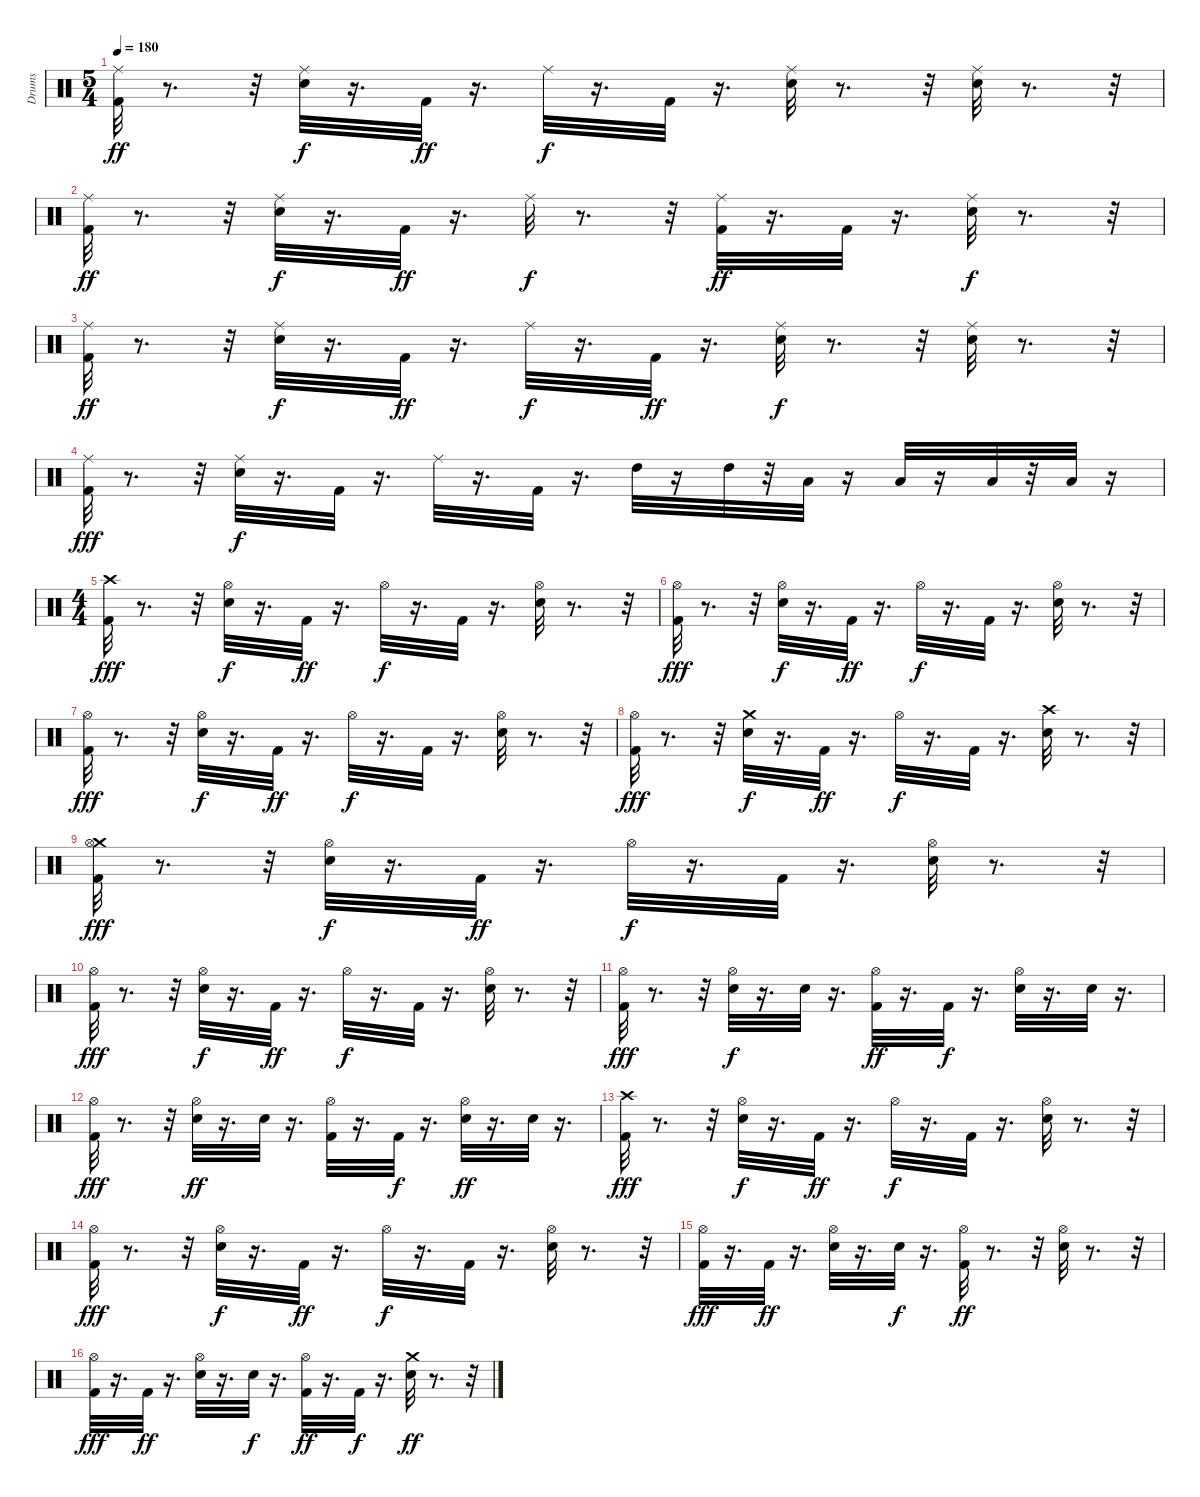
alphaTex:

\track ("Drums" "Drums") {instrument percussion}
\staff {score}
\articulation defaults
\ts (5 4)
\tempo 180
\clef neutral
\ks c
("Ride (middle)" "Kick (hit) 2").32{dy ff} r.8{d} r.32 ("Ride (middle)" "Snare (hit) 2").32{dy f} r.16{d} "Kick (hit) 2".32{dy ff} r.16{d} "Ride (middle)".32{dy f} r.16{d} "Kick (hit) 2".32 r.16{d} ("Ride (middle)" "Snare (hit) 2").32 r.8{d} r.32 ("Ride (middle)" "Snare (hit) 2").32 r.8{d} r.32 |
("Ride (middle)" "Kick (hit) 2").32{dy ff} r.8{d} r.32 ("Ride (middle)" "Snare (hit) 2").32{dy f} r.16{d} "Kick (hit) 2".32{dy ff} r.16{d} "Ride (middle)".32{dy f} r.8{d} r.32 ("Kick (hit) 2" "Ride (middle)").32{dy ff} r.16{d} "Kick (hit) 2".32 r.16{d} ("Ride (middle)" "Snare (hit) 2").32{dy f} r.8{d} r.32 |
("Ride (middle)" "Kick (hit) 2").32{dy ff} r.8{d} r.32 ("Ride (middle)" "Snare (hit) 2").32{dy f} r.16{d} "Kick (hit) 2".32{dy ff} r.16{d} "Ride (middle)".32{dy f} r.16{d} "Kick (hit) 2".32{dy ff} r.16{d} ("Ride (middle)" "Snare (hit) 2").32{dy f} r.8{d} r.32 ("Ride (middle)" "Snare (hit) 2").32 r.8{d} r.32 |
("Ride (middle)" "Kick (hit) 2").32{dy fff} r.8{d} r.32 ("Ride (middle)" "Snare (hit) 2").32{dy f} r.16{d} "Kick (hit) 2".32 r.16{d} "Ride (middle)".32 r.16{d} "Kick (hit) 2".32 r.16{d} "High Tom (hit)".32 r.16 "High Tom (hit)".32 r.32 "Low Tom (hit)".32 r.16 "Low Tom (hit)".32 r.16 "Low Floor Tom (hit)".32 r.32 "Low Floor Tom (hit)".32 r.16 |
\ts (4 4)
("Kick (hit) 2" "Crash high (hit)").32{dy fff} r.8{d} r.32 ("Hi-Hat (open)" "Snare (hit) 2").32{dy f} r.16{d} "Kick (hit) 2".32{dy ff} r.16{d} "Hi-Hat (open)".32{dy f} r.16{d} "Kick (hit) 2".32 r.16{d} ("Hi-Hat (open)" "Snare (hit) 2").32 r.8{d} r.32 |
("Hi-Hat (open)" "Kick (hit) 2").32{dy fff} r.8{d} r.32 ("Hi-Hat (open)" "Snare (hit) 2").32{dy f} r.16{d} "Kick (hit) 2".32{dy ff} r.16{d} "Hi-Hat (open)".32{dy f} r.16{d} "Kick (hit) 2".32 r.16{d} ("Hi-Hat (open)" "Snare (hit) 2").32 r.8{d} r.32 |
("Hi-Hat (open)" "Kick (hit) 2").32{dy fff} r.8{d} r.32 ("Hi-Hat (open)" "Snare (hit) 2").32{dy f} r.16{d} "Kick (hit) 2".32{dy ff} r.16{d} "Hi-Hat (open)".32{dy f} r.16{d} "Kick (hit) 2".32 r.16{d} ("Hi-Hat (open)" "Snare (hit) 2").32 r.8{d} r.32 |
("Hi-Hat (open)" "Kick (hit) 2").32{dy fff} r.8{d} r.32 ("Crash medium (hit)" "Snare (hit) 2").32{dy f} r.16{d} "Kick (hit) 2".32{dy ff} r.16{d} "Hi-Hat (open)".32{dy f} r.16{d} "Kick (hit) 2".32 r.16{d} ("Crash high (hit)" "Snare (hit) 2").32 r.8{d} r.32 |
("Crash medium (hit)" "Hi-Hat (open)" "Kick (hit) 2").32{dy fff} r.8{d} r.32 ("Hi-Hat (open)" "Snare (hit) 2").32{dy f} r.16{d} "Kick (hit) 2".32{dy ff} r.16{d} "Hi-Hat (open)".32{dy f} r.16{d} "Kick (hit) 2".32 r.16{d} ("Hi-Hat (open)" "Snare (hit) 2").32 r.8{d} r.32 |
("Hi-Hat (open)" "Kick (hit) 2").32{dy fff} r.8{d} r.32 ("Hi-Hat (open)" "Snare (hit) 2").32{dy f} r.16{d} "Kick (hit) 2".32{dy ff} r.16{d} "Hi-Hat (open)".32{dy f} r.16{d} "Kick (hit) 2".32 r.16{d} ("Hi-Hat (open)" "Snare (hit) 2").32 r.8{d} r.32 |
("Hi-Hat (open)" "Kick (hit) 2").32{dy fff} r.8{d} r.32 ("Hi-Hat (open)" "Snare (hit) 2").32{dy f} r.16{d} "Snare (hit) 2".32 r.16{d} ("Kick (hit) 2" "Hi-Hat (open)").32{dy ff} r.16{d} "Kick (hit) 2".32{dy f} r.16{d} ("Hi-Hat (open)" "Snare (hit) 2").32 r.16{d} "Snare (hit) 2".32 r.16{d} |
("Hi-Hat (open)" "Kick (hit) 2").32{dy fff} r.8{d} r.32 ("Hi-Hat (open)" "Snare (hit) 2").32{dy ff} r.16{d} "Snare (hit) 2".32 r.16{d} ("Kick (hit) 2" "Hi-Hat (open)").32 r.16{d} "Kick (hit) 2".32{dy f} r.16{d} ("Hi-Hat (open)" "Snare (hit) 2").32{dy ff} r.16{d} "Snare (hit) 2".32 r.16{d} |
("Kick (hit) 2" "Crash high (hit)").32{dy fff} r.8{d} r.32 ("Hi-Hat (open)" "Snare (hit) 2").32{dy f} r.16{d} "Kick (hit) 2".32{dy ff} r.16{d} "Hi-Hat (open)".32{dy f} r.16{d} "Kick (hit) 2".32 r.16{d} ("Hi-Hat (open)" "Snare (hit) 2").32 r.8{d} r.32 |
("Hi-Hat (open)" "Kick (hit) 2").32{dy fff} r.8{d} r.32 ("Hi-Hat (open)" "Snare (hit) 2").32{dy f} r.16{d} "Kick (hit) 2".32{dy ff} r.16{d} "Hi-Hat (open)".32{dy f} r.16{d} "Kick (hit) 2".32 r.16{d} ("Hi-Hat (open)" "Snare (hit) 2").32 r.8{d} r.32 |
("Hi-Hat (open)" "Kick (hit) 2").32{dy fff} r.16{d} "Kick (hit) 2".32{dy ff} r.16{d} ("Hi-Hat (open)" "Snare (hit) 2").32 r.16{d} "Snare (hit) 2".32{dy f} r.16{d} ("Kick (hit) 2" "Hi-Hat (open)").32{dy ff} r.8{d} r.32 ("Hi-Hat (open)" "Snare (hit) 2").32 r.8{d} r.32 |
("Hi-Hat (open)" "Kick (hit) 2").32{dy fff} r.16{d} "Kick (hit) 2".32{dy ff} r.16{d} ("Hi-Hat (open)" "Snare (hit) 2").32 r.16{d} "Snare (hit) 2".32{dy f} r.16{d} ("Kick (hit) 2" "Hi-Hat (open)").32{dy ff} r.16{d} "Kick (hit) 2".32{dy f} r.16{d} ("Crash medium (hit)" "Snare (hit) 2").32{dy ff} r.8{d} r.32
